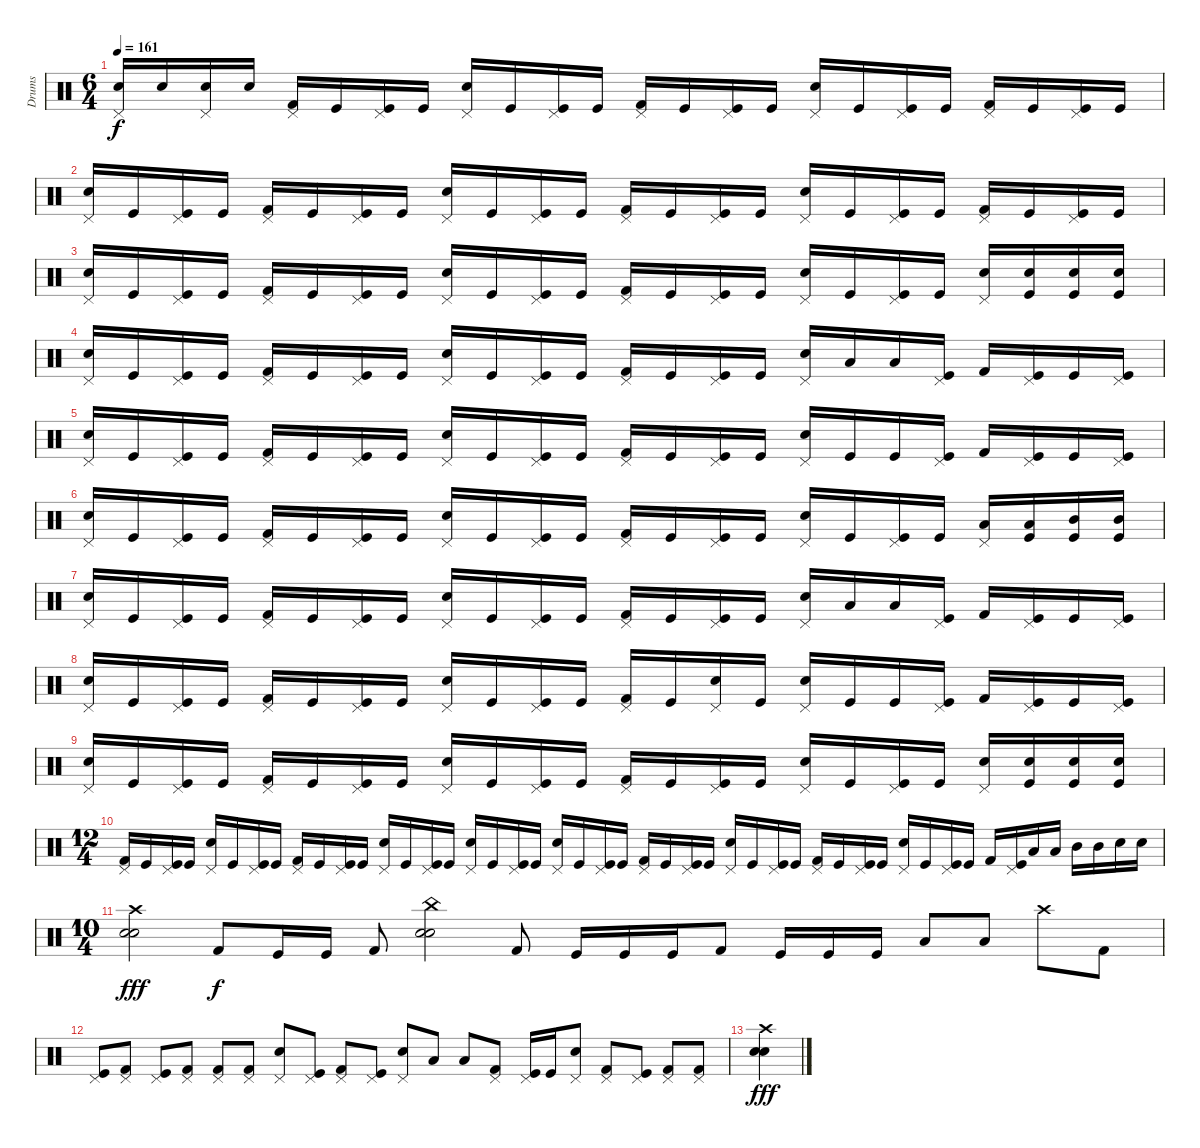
\track ("Drums" "Drums") {instrument percussion}
\staff {score}
\articulation defaults
\ts (6 4)
\tempo 161
\clef neutral
\ks c
("Pedal Hi-Hat (hit)" "Electric Snare (hit)").16{dy f} "Electric Snare (hit)".16 ("Pedal Hi-Hat (hit)" "Electric Snare (hit)").16 "Electric Snare (hit)".16 ("Pedal Hi-Hat (hit)" "Kick (hit) 2").16 "Kick (hit)".16 ("Pedal Hi-Hat (hit)" "Kick (hit)").16 "Kick (hit)".16 ("Pedal Hi-Hat (hit)" "Electric Snare (hit)").16 "Kick (hit)".16 ("Pedal Hi-Hat (hit)" "Kick (hit)").16 "Kick (hit)".16 ("Pedal Hi-Hat (hit)" "Kick (hit) 2").16 "Kick (hit)".16 ("Pedal Hi-Hat (hit)" "Kick (hit)").16 "Kick (hit)".16 ("Pedal Hi-Hat (hit)" "Electric Snare (hit)").16 "Kick (hit)".16 ("Pedal Hi-Hat (hit)" "Kick (hit)").16 "Kick (hit)".16 ("Pedal Hi-Hat (hit)" "Kick (hit) 2").16 "Kick (hit)".16 ("Pedal Hi-Hat (hit)" "Kick (hit)").16 "Kick (hit)".16 |
("Pedal Hi-Hat (hit)" "Electric Snare (hit)").16 "Kick (hit)".16 ("Pedal Hi-Hat (hit)" "Kick (hit)").16 "Kick (hit)".16 ("Pedal Hi-Hat (hit)" "Kick (hit) 2").16 "Kick (hit)".16 ("Pedal Hi-Hat (hit)" "Kick (hit)").16 "Kick (hit)".16 ("Pedal Hi-Hat (hit)" "Electric Snare (hit)").16 "Kick (hit)".16 ("Pedal Hi-Hat (hit)" "Kick (hit)").16 "Kick (hit)".16 ("Pedal Hi-Hat (hit)" "Kick (hit) 2").16 "Kick (hit)".16 ("Pedal Hi-Hat (hit)" "Kick (hit)").16 "Kick (hit)".16 ("Pedal Hi-Hat (hit)" "Electric Snare (hit)").16 "Kick (hit)".16 ("Pedal Hi-Hat (hit)" "Kick (hit)").16 "Kick (hit)".16 ("Pedal Hi-Hat (hit)" "Kick (hit) 2").16 "Kick (hit)".16 ("Pedal Hi-Hat (hit)" "Kick (hit)").16 "Kick (hit)".16 |
("Pedal Hi-Hat (hit)" "Electric Snare (hit)").16 "Kick (hit)".16 ("Pedal Hi-Hat (hit)" "Kick (hit)").16 "Kick (hit)".16 ("Pedal Hi-Hat (hit)" "Kick (hit) 2").16 "Kick (hit)".16 ("Pedal Hi-Hat (hit)" "Kick (hit)").16 "Kick (hit)".16 ("Pedal Hi-Hat (hit)" "Electric Snare (hit)").16 "Kick (hit)".16 ("Pedal Hi-Hat (hit)" "Kick (hit)").16 "Kick (hit)".16 ("Pedal Hi-Hat (hit)" "Kick (hit) 2").16 "Kick (hit)".16 ("Pedal Hi-Hat (hit)" "Kick (hit)").16 "Kick (hit)".16 ("Pedal Hi-Hat (hit)" "Electric Snare (hit)").16 "Kick (hit)".16 ("Pedal Hi-Hat (hit)" "Kick (hit)").16 "Kick (hit)".16 ("Pedal Hi-Hat (hit)" "Electric Snare (hit)").16 ("Electric Snare (hit)" "Kick (hit)").16 ("Electric Snare (hit)" "Kick (hit)").16 ("Electric Snare (hit)" "Kick (hit)").16 |
("Pedal Hi-Hat (hit)" "Electric Snare (hit)").16 "Kick (hit)".16 ("Pedal Hi-Hat (hit)" "Kick (hit)").16 "Kick (hit)".16 ("Pedal Hi-Hat (hit)" "Kick (hit) 2").16 "Kick (hit)".16 ("Pedal Hi-Hat (hit)" "Kick (hit)").16 "Kick (hit)".16 ("Pedal Hi-Hat (hit)" "Electric Snare (hit)").16 "Kick (hit)".16 ("Pedal Hi-Hat (hit)" "Kick (hit)").16 "Kick (hit)".16 ("Pedal Hi-Hat (hit)" "Kick (hit) 2").16 "Kick (hit)".16 ("Pedal Hi-Hat (hit)" "Kick (hit)").16 "Kick (hit)".16 ("Pedal Hi-Hat (hit)" "Electric Snare (hit)").16 "Low Tom (hit)".16 "Low Tom (hit)".16 ("Pedal Hi-Hat (hit)" "Kick (hit)").16 "Kick (hit) 2".16 ("Pedal Hi-Hat (hit)" "Kick (hit)").16 "Kick (hit)".16 ("Pedal Hi-Hat (hit)" "Kick (hit)").16 |
("Pedal Hi-Hat (hit)" "Electric Snare (hit)").16 "Kick (hit)".16 ("Pedal Hi-Hat (hit)" "Kick (hit)").16 "Kick (hit)".16 ("Pedal Hi-Hat (hit)" "Kick (hit) 2").16 "Kick (hit)".16 ("Pedal Hi-Hat (hit)" "Kick (hit)").16 "Kick (hit)".16 ("Pedal Hi-Hat (hit)" "Electric Snare (hit)").16 "Kick (hit)".16 ("Pedal Hi-Hat (hit)" "Kick (hit)").16 "Kick (hit)".16 ("Pedal Hi-Hat (hit)" "Kick (hit) 2").16 "Kick (hit)".16 ("Pedal Hi-Hat (hit)" "Kick (hit)").16 "Kick (hit)".16 ("Pedal Hi-Hat (hit)" "Electric Snare (hit)").16 "Kick (hit)".16 "Kick (hit)".16 ("Pedal Hi-Hat (hit)" "Kick (hit)").16 "Kick (hit) 2".16 ("Pedal Hi-Hat (hit)" "Kick (hit)").16 "Kick (hit)".16 ("Pedal Hi-Hat (hit)" "Kick (hit)").16 |
("Pedal Hi-Hat (hit)" "Electric Snare (hit)").16 "Kick (hit)".16 ("Pedal Hi-Hat (hit)" "Kick (hit)").16 "Kick (hit)".16 ("Pedal Hi-Hat (hit)" "Kick (hit) 2").16 "Kick (hit)".16 ("Pedal Hi-Hat (hit)" "Kick (hit)").16 "Kick (hit)".16 ("Pedal Hi-Hat (hit)" "Electric Snare (hit)").16 "Kick (hit)".16 ("Pedal Hi-Hat (hit)" "Kick (hit)").16 "Kick (hit)".16 ("Pedal Hi-Hat (hit)" "Kick (hit) 2").16 "Kick (hit)".16 ("Pedal Hi-Hat (hit)" "Kick (hit)").16 "Kick (hit)".16 ("Pedal Hi-Hat (hit)" "Electric Snare (hit)").16 "Kick (hit)".16 ("Pedal Hi-Hat (hit)" "Kick (hit)").16 "Kick (hit)".16 ("Pedal Hi-Hat (hit)" "Low Tom (hit)").16 ("Low Tom (hit)" "Kick (hit)").16 ("Mid Tom (hit)" "Kick (hit)").16 ("Mid Tom (hit)" "Kick (hit)").16 |
("Pedal Hi-Hat (hit)" "Electric Snare (hit)").16 "Kick (hit)".16 ("Pedal Hi-Hat (hit)" "Kick (hit)").16 "Kick (hit)".16 ("Pedal Hi-Hat (hit)" "Kick (hit) 2").16 "Kick (hit)".16 ("Pedal Hi-Hat (hit)" "Kick (hit)").16 "Kick (hit)".16 ("Pedal Hi-Hat (hit)" "Electric Snare (hit)").16 "Kick (hit)".16 ("Pedal Hi-Hat (hit)" "Kick (hit)").16 "Kick (hit)".16 ("Pedal Hi-Hat (hit)" "Kick (hit) 2").16 "Kick (hit)".16 ("Pedal Hi-Hat (hit)" "Kick (hit)").16 "Kick (hit)".16 ("Pedal Hi-Hat (hit)" "Electric Snare (hit)").16 "Low Tom (hit)".16 "Low Tom (hit)".16 ("Pedal Hi-Hat (hit)" "Kick (hit)").16 "Kick (hit) 2".16 ("Pedal Hi-Hat (hit)" "Kick (hit)").16 "Kick (hit)".16 ("Pedal Hi-Hat (hit)" "Kick (hit)").16 |
("Pedal Hi-Hat (hit)" "Electric Snare (hit)").16 "Kick (hit)".16 ("Pedal Hi-Hat (hit)" "Kick (hit)").16 "Kick (hit)".16 ("Pedal Hi-Hat (hit)" "Kick (hit) 2").16 "Kick (hit)".16 ("Pedal Hi-Hat (hit)" "Kick (hit)").16 "Kick (hit)".16 ("Pedal Hi-Hat (hit)" "Electric Snare (hit)").16 "Kick (hit)".16 ("Pedal Hi-Hat (hit)" "Kick (hit)").16 "Kick (hit)".16 ("Pedal Hi-Hat (hit)" "Kick (hit) 2").16 "Kick (hit)".16 ("Pedal Hi-Hat (hit)" "Electric Snare (hit)").16 "Kick (hit)".16 ("Pedal Hi-Hat (hit)" "Electric Snare (hit)").16 "Kick (hit)".16 "Kick (hit)".16 ("Pedal Hi-Hat (hit)" "Kick (hit)").16 "Kick (hit) 2".16 ("Pedal Hi-Hat (hit)" "Kick (hit)").16 "Kick (hit)".16 ("Pedal Hi-Hat (hit)" "Kick (hit)").16 |
("Pedal Hi-Hat (hit)" "Electric Snare (hit)").16 "Kick (hit)".16 ("Pedal Hi-Hat (hit)" "Kick (hit)").16 "Kick (hit)".16 ("Pedal Hi-Hat (hit)" "Kick (hit) 2").16 "Kick (hit)".16 ("Pedal Hi-Hat (hit)" "Kick (hit)").16 "Kick (hit)".16 ("Pedal Hi-Hat (hit)" "Electric Snare (hit)").16 "Kick (hit)".16 ("Pedal Hi-Hat (hit)" "Kick (hit)").16 "Kick (hit)".16 ("Pedal Hi-Hat (hit)" "Kick (hit) 2").16 "Kick (hit)".16 ("Pedal Hi-Hat (hit)" "Kick (hit)").16 "Kick (hit)".16 ("Pedal Hi-Hat (hit)" "Electric Snare (hit)").16 "Kick (hit)".16 ("Pedal Hi-Hat (hit)" "Kick (hit)").16 "Kick (hit)".16 ("Pedal Hi-Hat (hit)" "Electric Snare (hit)").16 ("Electric Snare (hit)" "Kick (hit)").16 ("Electric Snare (hit)" "Kick (hit)").16 ("Electric Snare (hit)" "Kick (hit)").16 |
\ts (12 4)
("Pedal Hi-Hat (hit)" "Kick (hit) 2").16 "Kick (hit)".16 ("Pedal Hi-Hat (hit)" "Kick (hit)").16 "Kick (hit)".16 ("Pedal Hi-Hat (hit)" "Electric Snare (hit)").16 "Kick (hit)".16 ("Pedal Hi-Hat (hit)" "Kick (hit)").16 "Kick (hit)".16 ("Pedal Hi-Hat (hit)" "Kick (hit) 2").16 "Kick (hit)".16 ("Pedal Hi-Hat (hit)" "Kick (hit)").16 "Kick (hit)".16 ("Pedal Hi-Hat (hit)" "Electric Snare (hit)").16 "Kick (hit)".16 ("Pedal Hi-Hat (hit)" "Kick (hit)").16 "Kick (hit)".16 ("Pedal Hi-Hat (hit)" "Electric Snare (hit)").16 "Kick (hit)".16 ("Pedal Hi-Hat (hit)" "Kick (hit)").16 "Kick (hit)".16 ("Pedal Hi-Hat (hit)" "Electric Snare (hit)").16 "Kick (hit)".16 ("Pedal Hi-Hat (hit)" "Kick (hit)").16 "Kick (hit)".16 ("Pedal Hi-Hat (hit)" "Kick (hit) 2").16 "Kick (hit)".16 ("Pedal Hi-Hat (hit)" "Kick (hit)").16 "Kick (hit)".16 ("Pedal Hi-Hat (hit)" "Electric Snare (hit)").16 "Kick (hit)".16 ("Pedal Hi-Hat (hit)" "Kick (hit)").16 "Kick (hit)".16 ("Pedal Hi-Hat (hit)" "Kick (hit) 2").16 "Kick (hit)".16 ("Pedal Hi-Hat (hit)" "Kick (hit)").16 "Kick (hit)".16 ("Pedal Hi-Hat (hit)" "Electric Snare (hit)").16 "Kick (hit)".16 ("Pedal Hi-Hat (hit)" "Kick (hit)").16 "Kick (hit)".16 "Kick (hit) 2".16 ("Pedal Hi-Hat (hit)" "Kick (hit)").16 "Low Tom (hit)".16 "Low Tom (hit)".16 "Mid Tom (hit)".16 "Mid Tom (hit)".16 "Electric Snare (hit)".16 "Electric Snare (hit)".16 |
\ts (10 4)
("Electric Snare (hit)" "Electric Snare (hit)" "Crash high (hit)").2{dy fff} "Kick (hit) 2".8{dy f} "Kick (hit)".16 "Kick (hit)".16 "Kick (hit) 2".8 ("Electric Snare (hit)" "Electric Snare (hit)" "China (hit)").2 "Kick (hit) 2".8 "Kick (hit)".16 "Kick (hit)".16 "Kick (hit)".16 "Kick (hit) 2".8 "Kick (hit)".16 "Kick (hit)".16 "Kick (hit)".16 "Low Tom (hit)".8 "Low Tom (hit)".8 "Crash high (hit)".8 "Kick (hit) 2".8 |
("Pedal Hi-Hat (hit)" "Kick (hit)").8 ("Pedal Hi-Hat (hit)" "Kick (hit) 2").8 ("Pedal Hi-Hat (hit)" "Kick (hit)").8 ("Pedal Hi-Hat (hit)" "Kick (hit) 2").8 ("Pedal Hi-Hat (hit)" "Kick (hit) 2").8 ("Pedal Hi-Hat (hit)" "Kick (hit) 2").8 ("Pedal Hi-Hat (hit)" "Electric Snare (hit)").8 ("Pedal Hi-Hat (hit)" "Kick (hit)").8 ("Pedal Hi-Hat (hit)" "Kick (hit) 2").8 ("Pedal Hi-Hat (hit)" "Kick (hit)").8 ("Pedal Hi-Hat (hit)" "Electric Snare (hit)").8 "Low Tom (hit)".8 "Low Tom (hit)".8 ("Pedal Hi-Hat (hit)" "Kick (hit) 2").8 ("Pedal Hi-Hat (hit)" "Kick (hit)").16 "Kick (hit)".16 ("Pedal Hi-Hat (hit)" "Electric Snare (hit)").8 ("Pedal Hi-Hat (hit)" "Kick (hit) 2").8 ("Pedal Hi-Hat (hit)" "Kick (hit)").8 ("Pedal Hi-Hat (hit)" "Kick (hit) 2").8 ("Pedal Hi-Hat (hit)" "Kick (hit) 2").8 |
("Electric Snare (hit)" "Electric Snare (hit)" "Crash high (hit)").4{dy fff}
